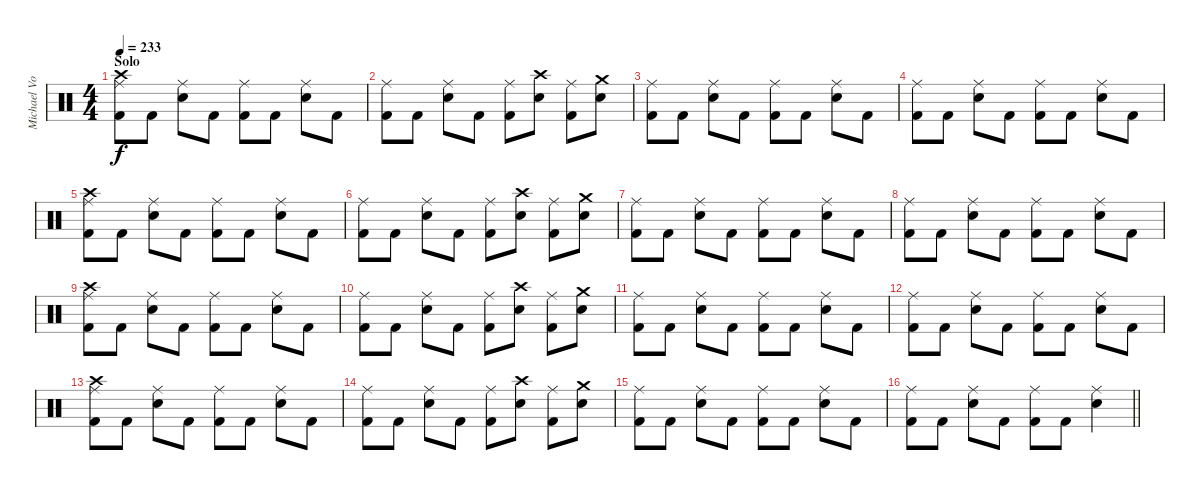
\track ("Michael Von Knorring" "Michael Vo") {instrument percussion}
\staff {score}
\articulation defaults
\ts (4 4)
\section ("" "Solo")
\tempo 233
\clef neutral
\ks c
("Crash high (hit)" "Ride (middle)" "Kick (hit) 2").8{dy f} "Kick (hit) 2".8 ("Ride (middle)" "Snare (hit) 2").8 "Kick (hit) 2".8 ("Ride (middle)" "Kick (hit) 2").8 "Kick (hit) 2".8 ("Ride (middle)" "Snare (hit) 2").8 "Kick (hit) 2".8 |
("Ride (middle)" "Kick (hit) 2").8 "Kick (hit) 2".8 ("Ride (middle)" "Snare (hit) 2").8 "Kick (hit) 2".8 ("Ride (middle)" "Kick (hit) 2").8 ("Crash high (hit)" "Snare (hit) 2").8 ("Ride (middle)" "Kick (hit) 2").8 ("Crash medium (hit)" "Snare (hit) 2").8 |
("Ride (middle)" "Kick (hit) 2").8 "Kick (hit) 2".8 ("Ride (middle)" "Snare (hit) 2").8 "Kick (hit) 2".8 ("Ride (middle)" "Kick (hit) 2").8 "Kick (hit) 2".8 ("Ride (middle)" "Snare (hit) 2").8 "Kick (hit) 2".8 |
("Ride (middle)" "Kick (hit) 2").8 "Kick (hit) 2".8 ("Ride (middle)" "Snare (hit) 2").8 "Kick (hit) 2".8 ("Ride (middle)" "Kick (hit) 2").8 "Kick (hit) 2".8 ("Ride (middle)" "Snare (hit) 2").8 "Kick (hit) 2".8 |
("Crash high (hit)" "Ride (middle)" "Kick (hit) 2").8 "Kick (hit) 2".8 ("Ride (middle)" "Snare (hit) 2").8 "Kick (hit) 2".8 ("Ride (middle)" "Kick (hit) 2").8 "Kick (hit) 2".8 ("Ride (middle)" "Snare (hit) 2").8 "Kick (hit) 2".8 |
("Ride (middle)" "Kick (hit) 2").8 "Kick (hit) 2".8 ("Ride (middle)" "Snare (hit) 2").8 "Kick (hit) 2".8 ("Ride (middle)" "Kick (hit) 2").8 ("Crash high (hit)" "Snare (hit) 2").8 ("Ride (middle)" "Kick (hit) 2").8 ("Crash medium (hit)" "Snare (hit) 2").8 |
("Ride (middle)" "Kick (hit) 2").8 "Kick (hit) 2".8 ("Ride (middle)" "Snare (hit) 2").8 "Kick (hit) 2".8 ("Ride (middle)" "Kick (hit) 2").8 "Kick (hit) 2".8 ("Ride (middle)" "Snare (hit) 2").8 "Kick (hit) 2".8 |
("Ride (middle)" "Kick (hit) 2").8 "Kick (hit) 2".8 ("Ride (middle)" "Snare (hit) 2").8 "Kick (hit) 2".8 ("Ride (middle)" "Kick (hit) 2").8 "Kick (hit) 2".8 ("Ride (middle)" "Snare (hit) 2").8 "Kick (hit) 2".8 |
("Crash high (hit)" "Ride (middle)" "Kick (hit) 2").8 "Kick (hit) 2".8 ("Ride (middle)" "Snare (hit) 2").8 "Kick (hit) 2".8 ("Ride (middle)" "Kick (hit) 2").8 "Kick (hit) 2".8 ("Ride (middle)" "Snare (hit) 2").8 "Kick (hit) 2".8 |
("Ride (middle)" "Kick (hit) 2").8 "Kick (hit) 2".8 ("Ride (middle)" "Snare (hit) 2").8 "Kick (hit) 2".8 ("Ride (middle)" "Kick (hit) 2").8 ("Crash high (hit)" "Snare (hit) 2").8 ("Ride (middle)" "Kick (hit) 2").8 ("Crash medium (hit)" "Snare (hit) 2").8 |
("Ride (middle)" "Kick (hit) 2").8 "Kick (hit) 2".8 ("Ride (middle)" "Snare (hit) 2").8 "Kick (hit) 2".8 ("Ride (middle)" "Kick (hit) 2").8 "Kick (hit) 2".8 ("Ride (middle)" "Snare (hit) 2").8 "Kick (hit) 2".8 |
("Ride (middle)" "Kick (hit) 2").8 "Kick (hit) 2".8 ("Ride (middle)" "Snare (hit) 2").8 "Kick (hit) 2".8 ("Ride (middle)" "Kick (hit) 2").8 "Kick (hit) 2".8 ("Ride (middle)" "Snare (hit) 2").8 "Kick (hit) 2".8 |
("Crash high (hit)" "Ride (middle)" "Kick (hit) 2").8 "Kick (hit) 2".8 ("Ride (middle)" "Snare (hit) 2").8 "Kick (hit) 2".8 ("Ride (middle)" "Kick (hit) 2").8 "Kick (hit) 2".8 ("Ride (middle)" "Snare (hit) 2").8 "Kick (hit) 2".8 |
("Ride (middle)" "Kick (hit) 2").8 "Kick (hit) 2".8 ("Ride (middle)" "Snare (hit) 2").8 "Kick (hit) 2".8 ("Ride (middle)" "Kick (hit) 2").8 ("Crash high (hit)" "Snare (hit) 2").8 ("Ride (middle)" "Kick (hit) 2").8 ("Crash medium (hit)" "Snare (hit) 2").8 |
("Ride (middle)" "Kick (hit) 2").8 "Kick (hit) 2".8 ("Ride (middle)" "Snare (hit) 2").8 "Kick (hit) 2".8 ("Ride (middle)" "Kick (hit) 2").8 "Kick (hit) 2".8 ("Ride (middle)" "Snare (hit) 2").8 "Kick (hit) 2".8 |
\barLineRight lightlight
("Ride (middle)" "Kick (hit) 2").8 "Kick (hit) 2".8 ("Ride (middle)" "Snare (hit) 2").8 "Kick (hit) 2".8 ("Ride (middle)" "Kick (hit) 2").8 "Kick (hit) 2".8 ("Ride (middle)" "Snare (hit) 2").4
